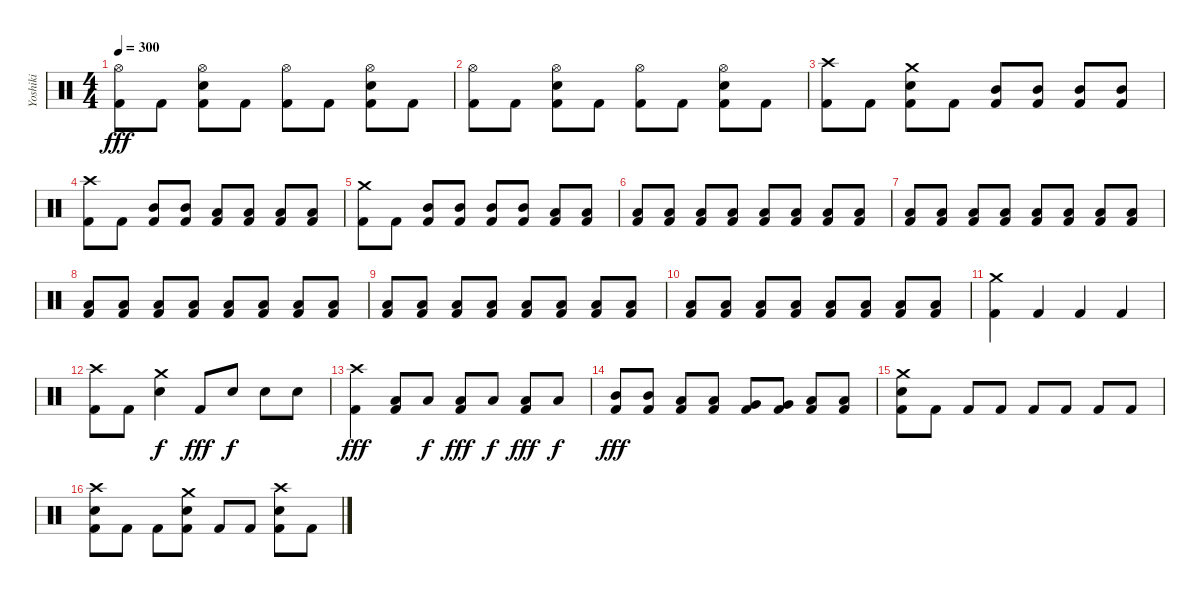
\track ("Yoshiki" "Yoshiki") {instrument percussion}
\staff {score}
\articulation defaults
\ts (4 4)
\tempo 300
\clef neutral
\ks c
("Hi-Hat (open)" "Kick (hit) 2").8{dy fff} "Kick (hit) 2".8 ("Hi-Hat (open)" "Snare (hit) 2" "Kick (hit) 2").8 "Kick (hit) 2".8 ("Hi-Hat (open)" "Kick (hit) 2").8 "Kick (hit) 2".8 ("Hi-Hat (open)" "Snare (hit) 2" "Kick (hit) 2").8 "Kick (hit) 2".8 |
("Hi-Hat (open)" "Kick (hit) 2").8 "Kick (hit) 2".8 ("Hi-Hat (open)" "Snare (hit) 2" "Kick (hit) 2").8 "Kick (hit) 2".8 ("Hi-Hat (open)" "Kick (hit) 2").8 "Kick (hit) 2".8 ("Hi-Hat (open)" "Snare (hit) 2" "Kick (hit) 2").8 "Kick (hit) 2".8 |
("Crash high (hit)" "Kick (hit) 2").8 "Kick (hit) 2".8 ("Crash medium (hit)" "Snare (hit) 2" "Kick (hit) 2").8 "Kick (hit) 2".8 ("Mid Tom (hit)" "Kick (hit) 2").8 ("Mid Tom (hit)" "Kick (hit) 2").8 ("Mid Tom (hit)" "Kick (hit) 2").8 ("Mid Tom (hit)" "Kick (hit) 2").8 |
("Crash high (hit)" "Kick (hit) 2").8 "Kick (hit) 2".8 ("Mid Tom (hit)" "Kick (hit) 2").8 ("Mid Tom (hit)" "Kick (hit) 2").8 ("Low Tom (hit)" "Kick (hit) 2").8 ("Low Tom (hit)" "Kick (hit) 2").8 ("Low Tom (hit)" "Kick (hit) 2").8 ("Low Tom (hit)" "Kick (hit) 2").8 |
("Crash medium (hit)" "Kick (hit) 2").8 "Kick (hit) 2".8 ("Mid Tom (hit)" "Kick (hit) 2").8 ("Mid Tom (hit)" "Kick (hit) 2").8 ("Mid Tom (hit)" "Kick (hit) 2").8 ("Mid Tom (hit)" "Kick (hit) 2").8 ("Low Tom (hit)" "Kick (hit) 2").8 ("Low Tom (hit)" "Kick (hit) 2").8 |
("Low Floor Tom (hit)" "Kick (hit) 2").8 ("Low Floor Tom (hit)" "Kick (hit) 2").8 ("Low Floor Tom (hit)" "Kick (hit) 2").8 ("Low Floor Tom (hit)" "Kick (hit) 2").8 ("Low Floor Tom (hit)" "Kick (hit) 2").8 ("Low Floor Tom (hit)" "Kick (hit) 2").8 ("Low Floor Tom (hit)" "Kick (hit) 2").8 ("Low Floor Tom (hit)" "Kick (hit) 2").8 |
("Low Floor Tom (hit)" "Kick (hit) 2").8 ("Low Floor Tom (hit)" "Kick (hit) 2").8 ("Low Floor Tom (hit)" "Kick (hit) 2").8 ("Low Floor Tom (hit)" "Kick (hit) 2").8 ("Low Floor Tom (hit)" "Kick (hit) 2").8 ("Low Floor Tom (hit)" "Kick (hit) 2").8 ("Low Floor Tom (hit)" "Kick (hit) 2").8 ("Low Floor Tom (hit)" "Kick (hit) 2").8 |
("Low Floor Tom (hit)" "Kick (hit) 2").8 ("Low Floor Tom (hit)" "Kick (hit) 2").8 ("Low Floor Tom (hit)" "Kick (hit) 2").8 ("Low Floor Tom (hit)" "Kick (hit) 2").8 ("Low Floor Tom (hit)" "Kick (hit) 2").8 ("Low Floor Tom (hit)" "Kick (hit) 2").8 ("Low Floor Tom (hit)" "Kick (hit) 2").8 ("Low Floor Tom (hit)" "Kick (hit) 2").8 |
("Low Floor Tom (hit)" "Kick (hit) 2").8 ("Low Floor Tom (hit)" "Kick (hit) 2").8 ("Low Floor Tom (hit)" "Kick (hit) 2").8 ("Low Floor Tom (hit)" "Kick (hit) 2").8 ("Low Floor Tom (hit)" "Kick (hit) 2").8 ("Low Floor Tom (hit)" "Kick (hit) 2").8 ("Low Floor Tom (hit)" "Kick (hit) 2").8 ("Low Floor Tom (hit)" "Kick (hit) 2").8 |
("Low Floor Tom (hit)" "Kick (hit) 2").8 ("Low Floor Tom (hit)" "Kick (hit) 2").8 ("Low Floor Tom (hit)" "Kick (hit) 2").8 ("Low Floor Tom (hit)" "Kick (hit) 2").8 ("Low Floor Tom (hit)" "Kick (hit) 2").8 ("Low Floor Tom (hit)" "Kick (hit) 2").8 ("Low Floor Tom (hit)" "Kick (hit) 2").8 ("Low Floor Tom (hit)" "Kick (hit) 2").8 |
("Crash medium (hit)" "Kick (hit) 2").4 "Kick (hit) 2".4 "Kick (hit) 2".4 "Kick (hit) 2".4 |
("Crash high (hit)" "Kick (hit) 2").8 "Kick (hit) 2".8 ("Crash medium (hit)" "Snare (hit) 2").4{dy f} "Kick (hit) 2".8{dy fff} "Snare (hit) 2".8{dy f} "Snare (hit) 2".8 "Snare (hit) 2".8 |
("Crash high (hit)" "Kick (hit) 2").4{dy fff} ("Low Floor Tom (hit)" "Kick (hit) 2").8 "Low Floor Tom (hit)".8{dy f} ("Low Floor Tom (hit)" "Kick (hit) 2").8{dy fff} "Low Floor Tom (hit)".8{dy f} ("Low Floor Tom (hit)" "Kick (hit) 2").8{dy fff} "Low Floor Tom (hit)".8{dy f} |
("Mid Tom (hit)" "Kick (hit) 2").8{dy fff} ("Mid Tom (hit)" "Kick (hit) 2").8 ("Low Tom (hit)" "Kick (hit) 2").8 ("Low Tom (hit)" "Kick (hit) 2").8 ("Very Low Tom (hit)" "Kick (hit) 2").8 ("Very Low Tom (hit)" "Kick (hit) 2").8 ("Low Floor Tom (hit)" "Kick (hit) 2").8 ("Low Floor Tom (hit)" "Kick (hit) 2").8 |
("Crash medium (hit)" "Snare (hit) 2" "Kick (hit) 2").8 "Kick (hit) 2".8 "Kick (hit) 2".8 "Kick (hit) 2".8 "Kick (hit) 2".8 "Kick (hit) 2".8 "Kick (hit) 2".8 "Kick (hit) 2".8 |
("Crash high (hit)" "Snare (hit) 2" "Kick (hit) 2").8 "Kick (hit) 2".8 "Kick (hit) 2".8 ("Crash medium (hit)" "Snare (hit) 2" "Kick (hit) 2").8 "Kick (hit) 2".8 "Kick (hit) 2".8 ("Crash high (hit)" "Snare (hit) 2" "Kick (hit) 2").8 "Kick (hit) 2".8
